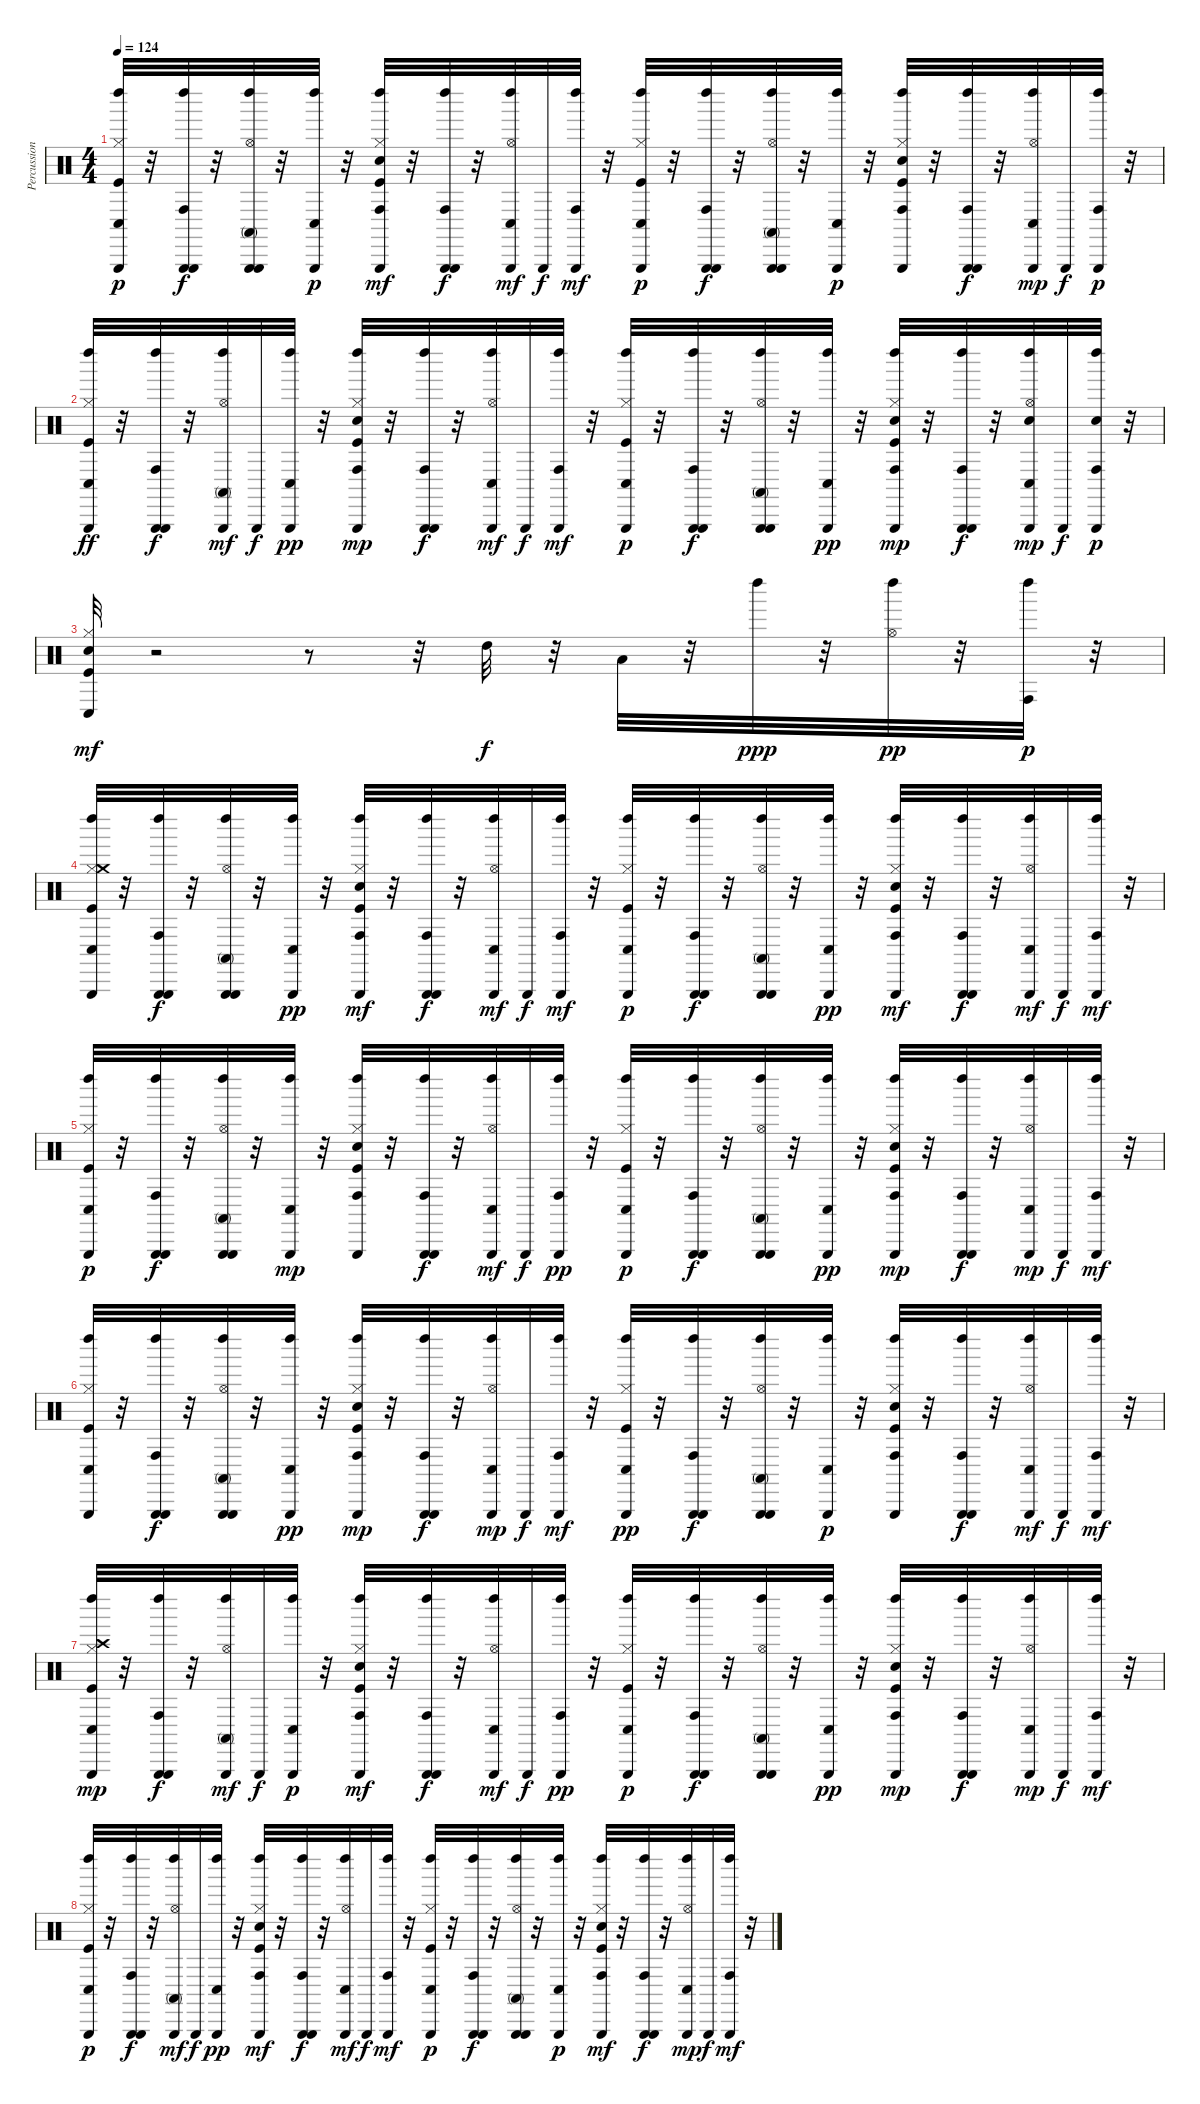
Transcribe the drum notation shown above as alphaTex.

\track ("Percussion" "Percussion") {instrument percussion}
\staff {score}
\articulation defaults
\ts (4 4)
\tempo 124
\clef neutral
\ks c
("Triangle (hit)" "Kick (hit)" "Hi-Hat (closed)" "Left Maraca (hit)" "Conga low (hit)").32{dy p} r.32 ("Left Maraca (hit)" "Triangle (hit)" "Conga high (hit)" "Triangle (hit)").32{dy f} r.32 ("Triangle (hit)" "Conga high (mute)" "Hi-Hat (open)" "Left Maraca (hit)" "Triangle (hit)").32 r.32 ("Triangle (hit)" "Left Maraca (hit)" "Conga low (hit)").32{dy p} r.32 ("Left Maraca (hit)" "Triangle (hit)" "Kick (hit)" "Snare (hit) 2" "Hi-Hat (closed)" "Conga high (hit)").32{dy mf} r.32 ("Triangle (hit)" "Conga high (hit)" "Left Maraca (hit)" "Triangle (hit)").32{dy f} r.32 ("Conga low (hit)" "Triangle (hit)" "Hi-Hat (open)" "Left Maraca (hit)").32{dy mf} "Triangle (hit)".32{dy f} ("Triangle (hit)" "Left Maraca (hit)" "Conga high (hit)").32{dy mf} r.32 ("Triangle (hit)" "Kick (hit)" "Hi-Hat (closed)" "Conga low (hit)" "Left Maraca (hit)").32{dy p} r.32 ("Triangle (hit)" "Conga high (hit)" "Left Maraca (hit)" "Triangle (hit)").32{dy f} r.32 ("Triangle (hit)" "Hi-Hat (open)" "Conga high (mute)" "Left Maraca (hit)" "Triangle (hit)").32 r.32 ("Triangle (hit)" "Left Maraca (hit)" "Conga low (hit)").32{dy p} r.32 ("Triangle (hit)" "Kick (hit)" "Snare (hit) 2" "Hi-Hat (closed)" "Conga high (hit)" "Left Maraca (hit)").32 r.32 ("Triangle (hit)" "Conga high (hit)" "Left Maraca (hit)" "Triangle (hit)").32{dy f} r.32 ("Triangle (hit)" "Hi-Hat (open)" "Conga low (hit)" "Left Maraca (hit)").32{dy mp} "Triangle (hit)".32{dy f} ("Triangle (hit)" "Conga high (hit)" "Left Maraca (hit)").32{dy p} r.32 |
("Triangle (hit)" "Hi-Hat (closed)" "Conga low (hit)" "Left Maraca (hit)" "Kick (hit)").32{dy ff} r.32 ("Left Maraca (hit)" "Triangle (hit)" "Conga high (hit)" "Triangle (hit)").32{dy f} r.32 ("Triangle (hit)" "Hi-Hat (open)" "Conga high (mute)" "Left Maraca (hit)").32{dy mf} "Triangle (hit)".32{dy f} ("Triangle (hit)" "Conga low (hit)" "Left Maraca (hit)").32{dy pp} r.32 ("Triangle (hit)" "Hi-Hat (closed)" "Conga high (hit)" "Kick (hit)" "Snare (hit) 2" "Left Maraca (hit)").32{dy mp} r.32 ("Triangle (hit)" "Left Maraca (hit)" "Conga high (hit)" "Triangle (hit)").32{dy f} r.32 ("Triangle (hit)" "Hi-Hat (open)" "Left Maraca (hit)" "Conga low (hit)").32{dy mf} "Triangle (hit)".32{dy f} ("Triangle (hit)" "Left Maraca (hit)" "Conga high (hit)").32{dy mf} r.32 ("Triangle (hit)" "Left Maraca (hit)" "Kick (hit)" "Hi-Hat (closed)" "Conga low (hit)").32{dy p} r.32 ("Triangle (hit)" "Left Maraca (hit)" "Conga high (hit)" "Triangle (hit)").32{dy f} r.32 ("Triangle (hit)" "Hi-Hat (open)" "Left Maraca (hit)" "Conga high (mute)" "Triangle (hit)").32 r.32 ("Triangle (hit)" "Conga low (hit)" "Left Maraca (hit)").32{dy pp} r.32 ("Triangle (hit)" "Kick (hit)" "Snare (hit) 2" "Conga high (hit)" "Left Maraca (hit)" "Hi-Hat (closed)").32{dy mp} r.32 ("Triangle (hit)" "Conga high (hit)" "Left Maraca (hit)" "Triangle (hit)").32{dy f} r.32 ("Triangle (hit)" "Hi-Hat (open)" "Snare (hit) 2" "Left Maraca (hit)" "Conga low (hit)").32{dy mp} "Triangle (hit)".32{dy f} ("Triangle (hit)" "Snare (hit) 2" "Conga high (hit)" "Left Maraca (hit)").32{dy p} r.32 |
("Kick (hit)" "Snare (hit) 2" "Hi-Hat (closed)" "Conga low (hit)").32{dy mf} r.2 r.8 r.32 "High Tom (hit)".32{dy f} r.32 "Low Tom (hit)".32 r.32 "Left Maraca (hit)".32{dy ppp} r.32 ("Hi-Hat (open)" "Left Maraca (hit)").32{dy pp} r.32 ("Conga high (hit)" "Left Maraca (hit)").32{dy p} r.32 |
("Triangle (hit)" "Kick (hit)" "Hi-Hat (closed)" "Crash medium (hit)" "Left Maraca (hit)" "Conga low (hit)").32 r.32 ("Triangle (hit)" "Conga high (hit)" "Left Maraca (hit)" "Triangle (hit)").32{dy f} r.32 ("Triangle (hit)" "Hi-Hat (open)" "Conga high (mute)" "Left Maraca (hit)" "Triangle (hit)").32 r.32 ("Triangle (hit)" "Conga low (hit)" "Left Maraca (hit)").32{dy pp} r.32 ("Triangle (hit)" "Kick (hit)" "Snare (hit) 2" "Hi-Hat (closed)" "Left Maraca (hit)" "Conga high (hit)").32{dy mf} r.32 ("Triangle (hit)" "Conga high (hit)" "Left Maraca (hit)" "Triangle (hit)").32{dy f} r.32 ("Triangle (hit)" "Hi-Hat (open)" "Conga low (hit)" "Left Maraca (hit)").32{dy mf} "Triangle (hit)".32{dy f} ("Triangle (hit)" "Left Maraca (hit)" "Conga high (hit)").32{dy mf} r.32 ("Triangle (hit)" "Kick (hit)" "Hi-Hat (closed)" "Conga low (hit)" "Left Maraca (hit)").32{dy p} r.32 ("Triangle (hit)" "Left Maraca (hit)" "Conga high (hit)" "Triangle (hit)").32{dy f} r.32 ("Triangle (hit)" "Hi-Hat (open)" "Conga high (mute)" "Left Maraca (hit)" "Triangle (hit)").32 r.32 ("Triangle (hit)" "Conga low (hit)" "Left Maraca (hit)").32{dy pp} r.32 ("Triangle (hit)" "Left Maraca (hit)" "Kick (hit)" "Snare (hit) 2" "Hi-Hat (closed)" "Conga high (hit)").32{dy mf} r.32 ("Triangle (hit)" "Left Maraca (hit)" "Conga high (hit)" "Triangle (hit)").32{dy f} r.32 ("Triangle (hit)" "Hi-Hat (open)" "Left Maraca (hit)" "Conga low (hit)").32{dy mf} "Triangle (hit)".32{dy f} ("Triangle (hit)" "Left Maraca (hit)" "Conga high (hit)").32{dy mf} r.32 |
("Triangle (hit)" "Hi-Hat (closed)" "Left Maraca (hit)" "Kick (hit)" "Conga low (hit)").32{dy p} r.32 ("Conga high (hit)" "Triangle (hit)" "Left Maraca (hit)" "Triangle (hit)").32{dy f} r.32 ("Triangle (hit)" "Hi-Hat (open)" "Conga high (mute)" "Left Maraca (hit)" "Triangle (hit)").32 r.32 ("Conga low (hit)" "Left Maraca (hit)" "Triangle (hit)").32{dy mp} r.32 ("Triangle (hit)" "Kick (hit)" "Snare (hit) 2" "Conga high (hit)" "Hi-Hat (closed)" "Left Maraca (hit)").32 r.32 ("Triangle (hit)" "Conga high (hit)" "Left Maraca (hit)" "Triangle (hit)").32{dy f} r.32 ("Conga low (hit)" "Triangle (hit)" "Hi-Hat (open)" "Left Maraca (hit)").32{dy mf} "Triangle (hit)".32{dy f} ("Conga high (hit)" "Triangle (hit)" "Left Maraca (hit)").32{dy pp} r.32 ("Triangle (hit)" "Kick (hit)" "Hi-Hat (closed)" "Conga low (hit)" "Left Maraca (hit)").32{dy p} r.32 ("Triangle (hit)" "Left Maraca (hit)" "Conga high (hit)" "Triangle (hit)").32{dy f} r.32 ("Triangle (hit)" "Hi-Hat (open)" "Conga high (mute)" "Left Maraca (hit)" "Triangle (hit)").32 r.32 ("Triangle (hit)" "Conga low (hit)" "Left Maraca (hit)").32{dy pp} r.32 ("Hi-Hat (closed)" "Left Maraca (hit)" "Triangle (hit)" "Kick (hit)" "Snare (hit) 2" "Conga high (hit)").32{dy mp} r.32 ("Triangle (hit)" "Conga high (hit)" "Left Maraca (hit)" "Triangle (hit)").32{dy f} r.32 ("Conga low (hit)" "Left Maraca (hit)" "Triangle (hit)" "Hi-Hat (open)").32{dy mp} "Triangle (hit)".32{dy f} ("Left Maraca (hit)" "Triangle (hit)" "Conga high (hit)").32{dy mf} r.32 |
("Conga low (hit)" "Left Maraca (hit)" "Triangle (hit)" "Kick (hit)" "Hi-Hat (closed)").32 r.32 ("Triangle (hit)" "Left Maraca (hit)" "Conga high (hit)" "Triangle (hit)").32{dy f} r.32 ("Triangle (hit)" "Conga high (mute)" "Hi-Hat (open)" "Left Maraca (hit)" "Triangle (hit)").32 r.32 ("Triangle (hit)" "Conga low (hit)" "Left Maraca (hit)").32{dy pp} r.32 ("Triangle (hit)" "Hi-Hat (closed)" "Conga high (hit)" "Kick (hit)" "Snare (hit) 2" "Left Maraca (hit)").32{dy mp} r.32 ("Triangle (hit)" "Conga high (hit)" "Left Maraca (hit)" "Triangle (hit)").32{dy f} r.32 ("Conga low (hit)" "Triangle (hit)" "Left Maraca (hit)" "Hi-Hat (open)").32{dy mp} "Triangle (hit)".32{dy f} ("Triangle (hit)" "Left Maraca (hit)" "Conga high (hit)").32{dy mf} r.32 ("Left Maraca (hit)" "Triangle (hit)" "Kick (hit)" "Hi-Hat (closed)" "Conga low (hit)").32{dy pp} r.32 ("Triangle (hit)" "Conga high (hit)" "Left Maraca (hit)" "Triangle (hit)").32{dy f} r.32 ("Triangle (hit)" "Hi-Hat (open)" "Conga high (mute)" "Left Maraca (hit)" "Triangle (hit)").32 r.32 ("Triangle (hit)" "Left Maraca (hit)" "Conga low (hit)").32{dy p} r.32 ("Triangle (hit)" "Kick (hit)" "Snare (hit) 2" "Hi-Hat (closed)" "Conga high (hit)" "Left Maraca (hit)").32 r.32 ("Triangle (hit)" "Conga high (hit)" "Left Maraca (hit)" "Triangle (hit)").32{dy f} r.32 ("Triangle (hit)" "Hi-Hat (open)" "Left Maraca (hit)" "Conga low (hit)").32{dy mf} "Triangle (hit)".32{dy f} ("Triangle (hit)" "Left Maraca (hit)" "Conga high (hit)").32{dy mf} r.32 |
("Triangle (hit)" "Kick (hit)" "Hi-Hat (closed)" "Crash high (hit)" "Conga low (hit)" "Left Maraca (hit)").32{dy mp} r.32 ("Triangle (hit)" "Conga high (hit)" "Left Maraca (hit)" "Triangle (hit)").32{dy f} r.32 ("Left Maraca (hit)" "Triangle (hit)" "Hi-Hat (open)" "Conga high (mute)").32{dy mf} "Triangle (hit)".32{dy f} ("Left Maraca (hit)" "Triangle (hit)" "Conga low (hit)").32{dy p} r.32 ("Triangle (hit)" "Left Maraca (hit)" "Kick (hit)" "Snare (hit) 2" "Hi-Hat (closed)" "Conga high (hit)").32{dy mf} r.32 ("Triangle (hit)" "Conga high (hit)" "Left Maraca (hit)" "Triangle (hit)").32{dy f} r.32 ("Triangle (hit)" "Hi-Hat (open)" "Left Maraca (hit)" "Conga low (hit)").32{dy mf} "Triangle (hit)".32{dy f} ("Conga high (hit)" "Triangle (hit)" "Left Maraca (hit)").32{dy pp} r.32 ("Triangle (hit)" "Kick (hit)" "Hi-Hat (closed)" "Conga low (hit)" "Left Maraca (hit)").32{dy p} r.32 ("Triangle (hit)" "Conga high (hit)" "Left Maraca (hit)" "Triangle (hit)").32{dy f} r.32 ("Triangle (hit)" "Hi-Hat (open)" "Conga high (mute)" "Left Maraca (hit)" "Triangle (hit)").32 r.32 ("Triangle (hit)" "Conga low (hit)" "Left Maraca (hit)").32{dy pp} r.32 ("Left Maraca (hit)" "Triangle (hit)" "Kick (hit)" "Snare (hit) 2" "Hi-Hat (closed)" "Conga high (hit)").32{dy mp} r.32 ("Triangle (hit)" "Left Maraca (hit)" "Conga high (hit)" "Triangle (hit)").32{dy f} r.32 ("Triangle (hit)" "Hi-Hat (open)" "Conga low (hit)" "Left Maraca (hit)").32{dy mp} "Triangle (hit)".32{dy f} ("Left Maraca (hit)" "Triangle (hit)" "Conga high (hit)").32{dy mf} r.32 |
("Triangle (hit)" "Left Maraca (hit)" "Kick (hit)" "Hi-Hat (closed)" "Conga low (hit)").32{dy p} r.32 ("Triangle (hit)" "Left Maraca (hit)" "Conga high (hit)" "Triangle (hit)").32{dy f} r.32 ("Triangle (hit)" "Hi-Hat (open)" "Left Maraca (hit)" "Conga high (mute)").32{dy mf} "Triangle (hit)".32{dy f} ("Conga low (hit)" "Triangle (hit)" "Left Maraca (hit)").32{dy pp} r.32 ("Left Maraca (hit)" "Triangle (hit)" "Kick (hit)" "Snare (hit) 2" "Conga high (hit)" "Hi-Hat (closed)").32{dy mf} r.32 ("Triangle (hit)" "Left Maraca (hit)" "Conga high (hit)" "Triangle (hit)").32{dy f} r.32 ("Triangle (hit)" "Conga low (hit)" "Hi-Hat (open)" "Left Maraca (hit)").32{dy mf} "Triangle (hit)".32{dy f} ("Triangle (hit)" "Left Maraca (hit)" "Conga high (hit)").32{dy mf} r.32 ("Triangle (hit)" "Kick (hit)" "Hi-Hat (closed)" "Conga low (hit)" "Left Maraca (hit)").32{dy p} r.32 ("Triangle (hit)" "Conga high (hit)" "Left Maraca (hit)" "Triangle (hit)").32{dy f} r.32 ("Hi-Hat (open)" "Triangle (hit)" "Conga high (mute)" "Left Maraca (hit)" "Triangle (hit)").32 r.32 ("Triangle (hit)" "Left Maraca (hit)" "Conga low (hit)").32{dy p} r.32 ("Triangle (hit)" "Kick (hit)" "Snare (hit) 2" "Hi-Hat (closed)" "Left Maraca (hit)" "Conga high (hit)").32{dy mf} r.32 ("Triangle (hit)" "Conga high (hit)" "Left Maraca (hit)" "Triangle (hit)").32{dy f} r.32 ("Triangle (hit)" "Hi-Hat (open)" "Conga low (hit)" "Left Maraca (hit)").32{dy mp} "Triangle (hit)".32{dy f} ("Triangle (hit)" "Left Maraca (hit)" "Conga high (hit)").32{dy mf} r.32
